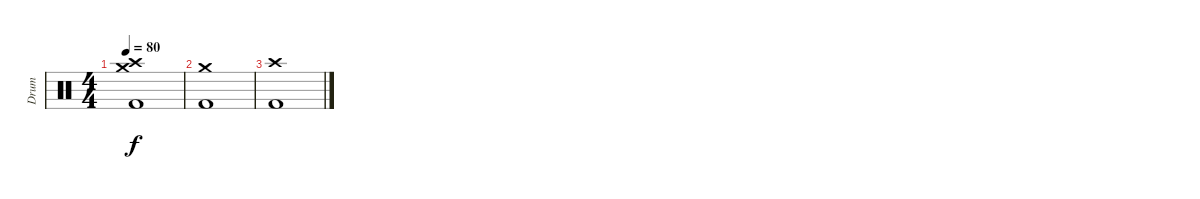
\track ("Drum" "Drum") {instrument percussion}
\staff {score}
\articulation defaults
\ts (4 4)
\tempo 80
\clef neutral
\ks c
("Crash medium (hit)" "Crash high (hit)" "Kick (hit) 2").1{dy f} |
("Crash medium (hit)" "Kick (hit) 2").1 |
("Crash high (hit)" "Kick (hit) 2").1
